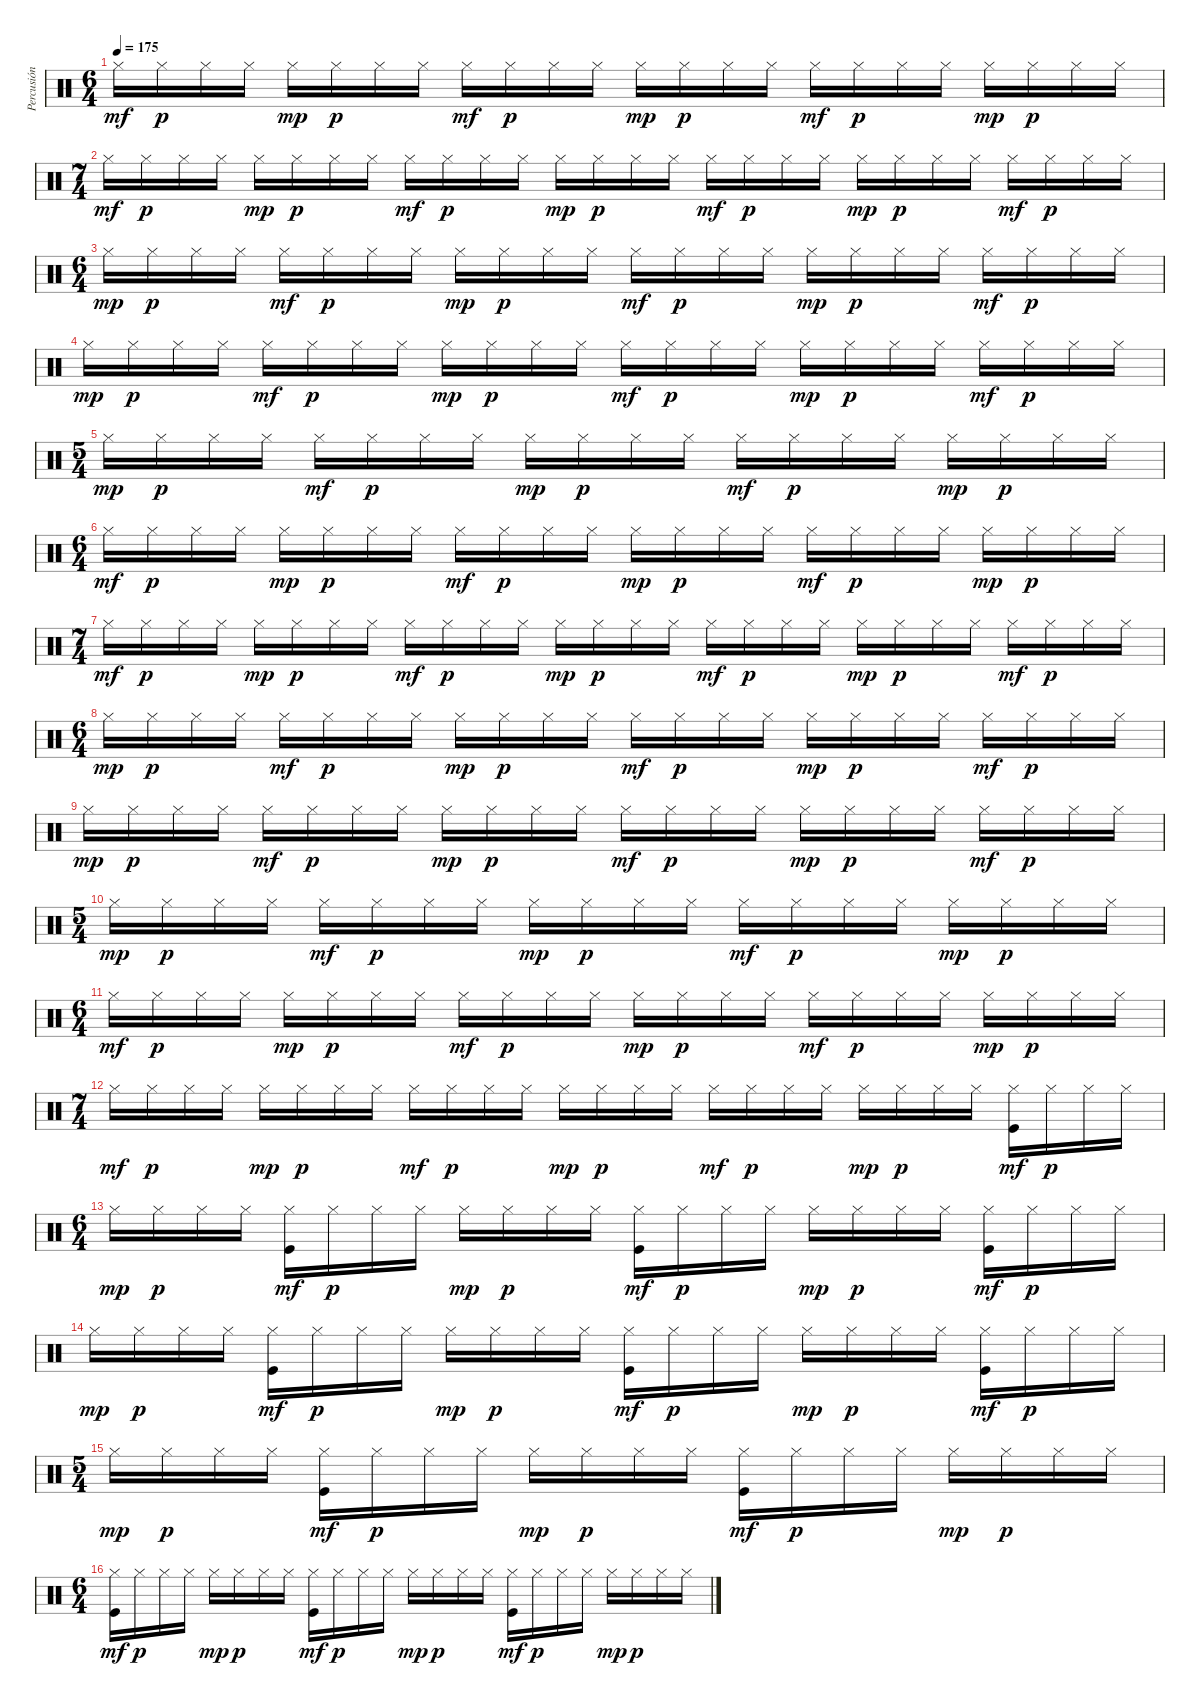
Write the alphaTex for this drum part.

\track ("Percusión" "Percusión") {instrument percussion}
\staff {score}
\articulation defaults
\ts (6 4)
\tempo 175
\clef neutral
\ks c "Hi-Hat (closed)".16{dy mf} "Hi-Hat (closed)".16{dy p} "Hi-Hat (closed)".16 "Hi-Hat (closed)".16 "Hi-Hat (closed)".16{dy mp} "Hi-Hat (closed)".16{dy p} "Hi-Hat (closed)".16 "Hi-Hat (closed)".16 "Hi-Hat (closed)".16{dy mf} "Hi-Hat (closed)".16{dy p} "Hi-Hat (closed)".16 "Hi-Hat (closed)".16 "Hi-Hat (closed)".16{dy mp} "Hi-Hat (closed)".16{dy p} "Hi-Hat (closed)".16 "Hi-Hat (closed)".16 "Hi-Hat (closed)".16{dy mf} "Hi-Hat (closed)".16{dy p} "Hi-Hat (closed)".16 "Hi-Hat (closed)".16 "Hi-Hat (closed)".16{dy mp} "Hi-Hat (closed)".16{dy p} "Hi-Hat (closed)".16 "Hi-Hat (closed)".16
|
\ts (7 4)
"Hi-Hat (closed)".16{dy mf} "Hi-Hat (closed)".16{dy p} "Hi-Hat (closed)".16 "Hi-Hat (closed)".16 "Hi-Hat (closed)".16{dy mp} "Hi-Hat (closed)".16{dy p} "Hi-Hat (closed)".16 "Hi-Hat (closed)".16 "Hi-Hat (closed)".16{dy mf} "Hi-Hat (closed)".16{dy p} "Hi-Hat (closed)".16 "Hi-Hat (closed)".16 "Hi-Hat (closed)".16{dy mp} "Hi-Hat (closed)".16{dy p} "Hi-Hat (closed)".16 "Hi-Hat (closed)".16 "Hi-Hat (closed)".16{dy mf} "Hi-Hat (closed)".16{dy p} "Hi-Hat (closed)".16 "Hi-Hat (closed)".16 "Hi-Hat (closed)".16{dy mp} "Hi-Hat (closed)".16{dy p} "Hi-Hat (closed)".16 "Hi-Hat (closed)".16 "Hi-Hat (closed)".16{dy mf} "Hi-Hat (closed)".16{dy p} "Hi-Hat (closed)".16 "Hi-Hat (closed)".16 |
\ts (6 4)
"Hi-Hat (closed)".16{dy mp} "Hi-Hat (closed)".16{dy p} "Hi-Hat (closed)".16 "Hi-Hat (closed)".16 "Hi-Hat (closed)".16{dy mf} "Hi-Hat (closed)".16{dy p} "Hi-Hat (closed)".16 "Hi-Hat (closed)".16 "Hi-Hat (closed)".16{dy mp} "Hi-Hat (closed)".16{dy p} "Hi-Hat (closed)".16 "Hi-Hat (closed)".16 "Hi-Hat (closed)".16{dy mf} "Hi-Hat (closed)".16{dy p} "Hi-Hat (closed)".16 "Hi-Hat (closed)".16 "Hi-Hat (closed)".16{dy mp} "Hi-Hat (closed)".16{dy p} "Hi-Hat (closed)".16 "Hi-Hat (closed)".16 "Hi-Hat (closed)".16{dy mf} "Hi-Hat (closed)".16{dy p} "Hi-Hat (closed)".16 "Hi-Hat (closed)".16 |
"Hi-Hat (closed)".16{dy mp} "Hi-Hat (closed)".16{dy p} "Hi-Hat (closed)".16 "Hi-Hat (closed)".16 "Hi-Hat (closed)".16{dy mf} "Hi-Hat (closed)".16{dy p} "Hi-Hat (closed)".16 "Hi-Hat (closed)".16 "Hi-Hat (closed)".16{dy mp} "Hi-Hat (closed)".16{dy p} "Hi-Hat (closed)".16 "Hi-Hat (closed)".16 "Hi-Hat (closed)".16{dy mf} "Hi-Hat (closed)".16{dy p} "Hi-Hat (closed)".16 "Hi-Hat (closed)".16 "Hi-Hat (closed)".16{dy mp} "Hi-Hat (closed)".16{dy p} "Hi-Hat (closed)".16 "Hi-Hat (closed)".16 "Hi-Hat (closed)".16{dy mf} "Hi-Hat (closed)".16{dy p} "Hi-Hat (closed)".16 "Hi-Hat (closed)".16 |
\ts (5 4)
"Hi-Hat (closed)".16{dy mp} "Hi-Hat (closed)".16{dy p} "Hi-Hat (closed)".16 "Hi-Hat (closed)".16 "Hi-Hat (closed)".16{dy mf} "Hi-Hat (closed)".16{dy p} "Hi-Hat (closed)".16 "Hi-Hat (closed)".16 "Hi-Hat (closed)".16{dy mp} "Hi-Hat (closed)".16{dy p} "Hi-Hat (closed)".16 "Hi-Hat (closed)".16 "Hi-Hat (closed)".16{dy mf} "Hi-Hat (closed)".16{dy p} "Hi-Hat (closed)".16 "Hi-Hat (closed)".16 "Hi-Hat (closed)".16{dy mp} "Hi-Hat (closed)".16{dy p} "Hi-Hat (closed)".16 "Hi-Hat (closed)".16 |
\ts (6 4)
"Hi-Hat (closed)".16{dy mf} "Hi-Hat (closed)".16{dy p} "Hi-Hat (closed)".16 "Hi-Hat (closed)".16 "Hi-Hat (closed)".16{dy mp} "Hi-Hat (closed)".16{dy p} "Hi-Hat (closed)".16 "Hi-Hat (closed)".16 "Hi-Hat (closed)".16{dy mf} "Hi-Hat (closed)".16{dy p} "Hi-Hat (closed)".16 "Hi-Hat (closed)".16 "Hi-Hat (closed)".16{dy mp} "Hi-Hat (closed)".16{dy p} "Hi-Hat (closed)".16 "Hi-Hat (closed)".16 "Hi-Hat (closed)".16{dy mf} "Hi-Hat (closed)".16{dy p} "Hi-Hat (closed)".16 "Hi-Hat (closed)".16 "Hi-Hat (closed)".16{dy mp} "Hi-Hat (closed)".16{dy p} "Hi-Hat (closed)".16 "Hi-Hat (closed)".16 |
\ts (7 4)
"Hi-Hat (closed)".16{dy mf} "Hi-Hat (closed)".16{dy p} "Hi-Hat (closed)".16 "Hi-Hat (closed)".16 "Hi-Hat (closed)".16{dy mp} "Hi-Hat (closed)".16{dy p} "Hi-Hat (closed)".16 "Hi-Hat (closed)".16 "Hi-Hat (closed)".16{dy mf} "Hi-Hat (closed)".16{dy p} "Hi-Hat (closed)".16 "Hi-Hat (closed)".16 "Hi-Hat (closed)".16{dy mp} "Hi-Hat (closed)".16{dy p} "Hi-Hat (closed)".16 "Hi-Hat (closed)".16 "Hi-Hat (closed)".16{dy mf} "Hi-Hat (closed)".16{dy p} "Hi-Hat (closed)".16 "Hi-Hat (closed)".16 "Hi-Hat (closed)".16{dy mp} "Hi-Hat (closed)".16{dy p} "Hi-Hat (closed)".16 "Hi-Hat (closed)".16 "Hi-Hat (closed)".16{dy mf} "Hi-Hat (closed)".16{dy p} "Hi-Hat (closed)".16 "Hi-Hat (closed)".16 |
\ts (6 4)
"Hi-Hat (closed)".16{dy mp} "Hi-Hat (closed)".16{dy p} "Hi-Hat (closed)".16 "Hi-Hat (closed)".16 "Hi-Hat (closed)".16{dy mf} "Hi-Hat (closed)".16{dy p} "Hi-Hat (closed)".16 "Hi-Hat (closed)".16 "Hi-Hat (closed)".16{dy mp} "Hi-Hat (closed)".16{dy p} "Hi-Hat (closed)".16 "Hi-Hat (closed)".16 "Hi-Hat (closed)".16{dy mf} "Hi-Hat (closed)".16{dy p} "Hi-Hat (closed)".16 "Hi-Hat (closed)".16 "Hi-Hat (closed)".16{dy mp} "Hi-Hat (closed)".16{dy p} "Hi-Hat (closed)".16 "Hi-Hat (closed)".16 "Hi-Hat (closed)".16{dy mf} "Hi-Hat (closed)".16{dy p} "Hi-Hat (closed)".16 "Hi-Hat (closed)".16 |
"Hi-Hat (closed)".16{dy mp} "Hi-Hat (closed)".16{dy p} "Hi-Hat (closed)".16 "Hi-Hat (closed)".16 "Hi-Hat (closed)".16{dy mf} "Hi-Hat (closed)".16{dy p} "Hi-Hat (closed)".16 "Hi-Hat (closed)".16 "Hi-Hat (closed)".16{dy mp} "Hi-Hat (closed)".16{dy p} "Hi-Hat (closed)".16 "Hi-Hat (closed)".16 "Hi-Hat (closed)".16{dy mf} "Hi-Hat (closed)".16{dy p} "Hi-Hat (closed)".16 "Hi-Hat (closed)".16 "Hi-Hat (closed)".16{dy mp} "Hi-Hat (closed)".16{dy p} "Hi-Hat (closed)".16 "Hi-Hat (closed)".16 "Hi-Hat (closed)".16{dy mf} "Hi-Hat (closed)".16{dy p} "Hi-Hat (closed)".16 "Hi-Hat (closed)".16 |
\ts (5 4)
"Hi-Hat (closed)".16{dy mp} "Hi-Hat (closed)".16{dy p} "Hi-Hat (closed)".16 "Hi-Hat (closed)".16 "Hi-Hat (closed)".16{dy mf} "Hi-Hat (closed)".16{dy p} "Hi-Hat (closed)".16 "Hi-Hat (closed)".16 "Hi-Hat (closed)".16{dy mp} "Hi-Hat (closed)".16{dy p} "Hi-Hat (closed)".16 "Hi-Hat (closed)".16 "Hi-Hat (closed)".16{dy mf} "Hi-Hat (closed)".16{dy p} "Hi-Hat (closed)".16 "Hi-Hat (closed)".16 "Hi-Hat (closed)".16{dy mp} "Hi-Hat (closed)".16{dy p} "Hi-Hat (closed)".16 "Hi-Hat (closed)".16 |
\ts (6 4)
"Hi-Hat (closed)".16{dy mf} "Hi-Hat (closed)".16{dy p} "Hi-Hat (closed)".16 "Hi-Hat (closed)".16 "Hi-Hat (closed)".16{dy mp} "Hi-Hat (closed)".16{dy p} "Hi-Hat (closed)".16 "Hi-Hat (closed)".16 "Hi-Hat (closed)".16{dy mf} "Hi-Hat (closed)".16{dy p} "Hi-Hat (closed)".16 "Hi-Hat (closed)".16 "Hi-Hat (closed)".16{dy mp} "Hi-Hat (closed)".16{dy p} "Hi-Hat (closed)".16 "Hi-Hat (closed)".16 "Hi-Hat (closed)".16{dy mf} "Hi-Hat (closed)".16{dy p} "Hi-Hat (closed)".16 "Hi-Hat (closed)".16 "Hi-Hat (closed)".16{dy mp} "Hi-Hat (closed)".16{dy p} "Hi-Hat (closed)".16 "Hi-Hat (closed)".16 |
\ts (7 4)
"Hi-Hat (closed)".16{dy mf} "Hi-Hat (closed)".16{dy p} "Hi-Hat (closed)".16 "Hi-Hat (closed)".16 "Hi-Hat (closed)".16{dy mp} "Hi-Hat (closed)".16{dy p} "Hi-Hat (closed)".16 "Hi-Hat (closed)".16 "Hi-Hat (closed)".16{dy mf} "Hi-Hat (closed)".16{dy p} "Hi-Hat (closed)".16 "Hi-Hat (closed)".16 "Hi-Hat (closed)".16{dy mp} "Hi-Hat (closed)".16{dy p} "Hi-Hat (closed)".16 "Hi-Hat (closed)".16 "Hi-Hat (closed)".16{dy mf} "Hi-Hat (closed)".16{dy p} "Hi-Hat (closed)".16 "Hi-Hat (closed)".16 "Hi-Hat (closed)".16{dy mp} "Hi-Hat (closed)".16{dy p} "Hi-Hat (closed)".16 "Hi-Hat (closed)".16 ("Hi-Hat (closed)" "Kick (hit)").16{dy mf} "Hi-Hat (closed)".16{dy p} "Hi-Hat (closed)".16 "Hi-Hat (closed)".16 |
\ts (6 4)
"Hi-Hat (closed)".16{dy mp} "Hi-Hat (closed)".16{dy p} "Hi-Hat (closed)".16 "Hi-Hat (closed)".16 ("Hi-Hat (closed)" "Kick (hit)").16{dy mf} "Hi-Hat (closed)".16{dy p} "Hi-Hat (closed)".16 "Hi-Hat (closed)".16 "Hi-Hat (closed)".16{dy mp} "Hi-Hat (closed)".16{dy p} "Hi-Hat (closed)".16 "Hi-Hat (closed)".16 ("Hi-Hat (closed)" "Kick (hit)").16{dy mf} "Hi-Hat (closed)".16{dy p} "Hi-Hat (closed)".16 "Hi-Hat (closed)".16 "Hi-Hat (closed)".16{dy mp} "Hi-Hat (closed)".16{dy p} "Hi-Hat (closed)".16 "Hi-Hat (closed)".16 ("Hi-Hat (closed)" "Kick (hit)").16{dy mf} "Hi-Hat (closed)".16{dy p} "Hi-Hat (closed)".16 "Hi-Hat (closed)".16 |
"Hi-Hat (closed)".16{dy mp} "Hi-Hat (closed)".16{dy p} "Hi-Hat (closed)".16 "Hi-Hat (closed)".16 ("Hi-Hat (closed)" "Kick (hit)").16{dy mf} "Hi-Hat (closed)".16{dy p} "Hi-Hat (closed)".16 "Hi-Hat (closed)".16 "Hi-Hat (closed)".16{dy mp} "Hi-Hat (closed)".16{dy p} "Hi-Hat (closed)".16 "Hi-Hat (closed)".16 ("Hi-Hat (closed)" "Kick (hit)").16{dy mf} "Hi-Hat (closed)".16{dy p} "Hi-Hat (closed)".16 "Hi-Hat (closed)".16 "Hi-Hat (closed)".16{dy mp} "Hi-Hat (closed)".16{dy p} "Hi-Hat (closed)".16 "Hi-Hat (closed)".16 ("Hi-Hat (closed)" "Kick (hit)").16{dy mf} "Hi-Hat (closed)".16{dy p} "Hi-Hat (closed)".16 "Hi-Hat (closed)".16 |
\ts (5 4)
"Hi-Hat (closed)".16{dy mp} "Hi-Hat (closed)".16{dy p} "Hi-Hat (closed)".16 "Hi-Hat (closed)".16 ("Hi-Hat (closed)" "Kick (hit)").16{dy mf} "Hi-Hat (closed)".16{dy p} "Hi-Hat (closed)".16 "Hi-Hat (closed)".16 "Hi-Hat (closed)".16{dy mp} "Hi-Hat (closed)".16{dy p} "Hi-Hat (closed)".16 "Hi-Hat (closed)".16 ("Hi-Hat (closed)" "Kick (hit)").16{dy mf} "Hi-Hat (closed)".16{dy p} "Hi-Hat (closed)".16 "Hi-Hat (closed)".16 "Hi-Hat (closed)".16{dy mp} "Hi-Hat (closed)".16{dy p} "Hi-Hat (closed)".16 "Hi-Hat (closed)".16 |
\ts (6 4)
("Hi-Hat (closed)" "Kick (hit)").16{dy mf} "Hi-Hat (closed)".16{dy p} "Hi-Hat (closed)".16 "Hi-Hat (closed)".16 "Hi-Hat (closed)".16{dy mp} "Hi-Hat (closed)".16{dy p} "Hi-Hat (closed)".16 "Hi-Hat (closed)".16 ("Hi-Hat (closed)" "Kick (hit)").16{dy mf} "Hi-Hat (closed)".16{dy p} "Hi-Hat (closed)".16 "Hi-Hat (closed)".16 "Hi-Hat (closed)".16{dy mp} "Hi-Hat (closed)".16{dy p} "Hi-Hat (closed)".16 "Hi-Hat (closed)".16 ("Hi-Hat (closed)" "Kick (hit)").16{dy mf} "Hi-Hat (closed)".16{dy p} "Hi-Hat (closed)".16 "Hi-Hat (closed)".16 "Hi-Hat (closed)".16{dy mp} "Hi-Hat (closed)".16{dy p} "Hi-Hat (closed)".16 "Hi-Hat (closed)".16
